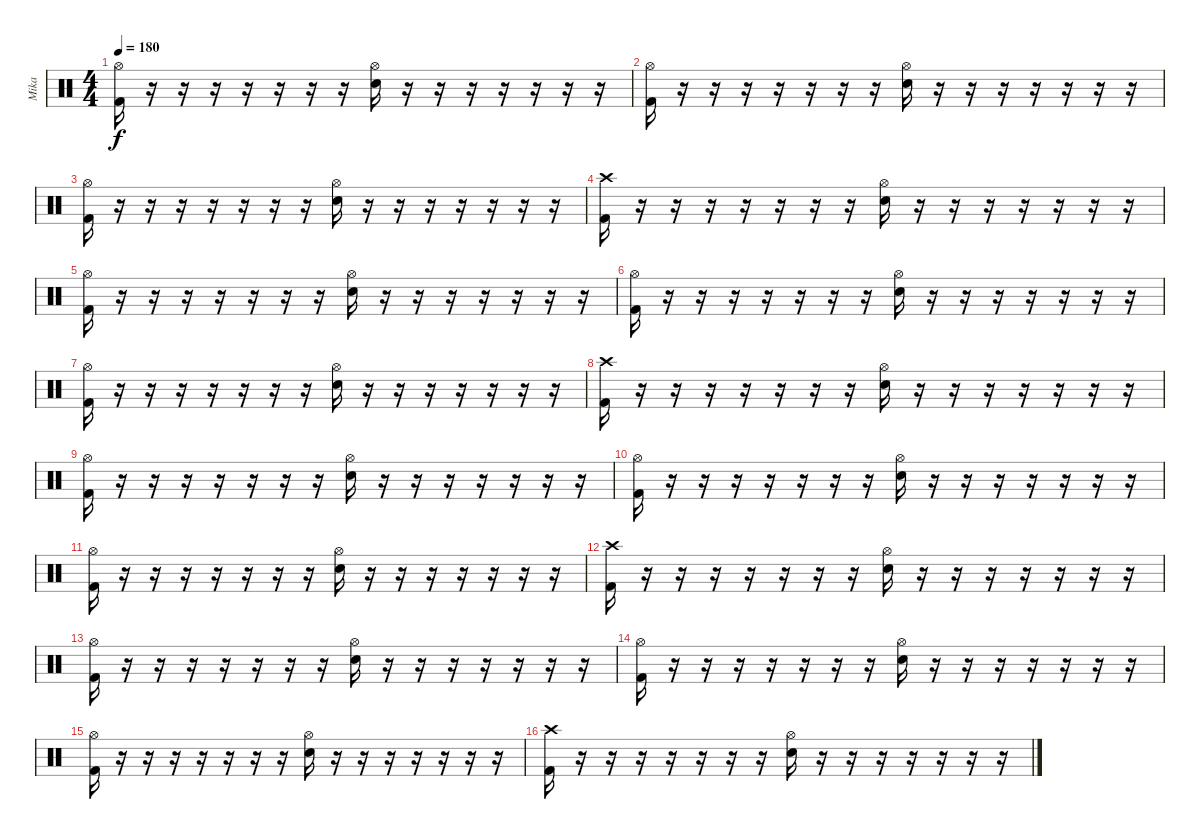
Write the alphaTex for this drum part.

\track ("Mika" "Mika") {instrument percussion}
\staff {score}
\articulation defaults
\ts (4 4)
\tempo 180
\clef neutral
\ks c
("Hi-Hat (open)" "Kick (hit) 2").16{dy f} r.16 r.16 r.16 r.16 r.16 r.16 r.16 ("Hi-Hat (open)" "Electric Snare (hit)").16 r.16 r.16 r.16 r.16 r.16 r.16 r.16 |
("Hi-Hat (open)" "Kick (hit) 2").16 r.16 r.16 r.16 r.16 r.16 r.16 r.16 ("Hi-Hat (open)" "Electric Snare (hit)").16 r.16 r.16 r.16 r.16 r.16 r.16 r.16 |
("Hi-Hat (open)" "Kick (hit) 2").16 r.16 r.16 r.16 r.16 r.16 r.16 r.16 ("Hi-Hat (open)" "Electric Snare (hit)").16 r.16 r.16 r.16 r.16 r.16 r.16 r.16 |
("Crash high (hit)" "Kick (hit) 2").16 r.16 r.16 r.16 r.16 r.16 r.16 r.16 ("Hi-Hat (open)" "Electric Snare (hit)").16 r.16 r.16 r.16 r.16 r.16 r.16 r.16 |
("Hi-Hat (open)" "Kick (hit) 2").16 r.16 r.16 r.16 r.16 r.16 r.16 r.16 ("Hi-Hat (open)" "Electric Snare (hit)").16 r.16 r.16 r.16 r.16 r.16 r.16 r.16 |
("Hi-Hat (open)" "Kick (hit) 2").16 r.16 r.16 r.16 r.16 r.16 r.16 r.16 ("Hi-Hat (open)" "Electric Snare (hit)").16 r.16 r.16 r.16 r.16 r.16 r.16 r.16 |
("Hi-Hat (open)" "Kick (hit) 2").16 r.16 r.16 r.16 r.16 r.16 r.16 r.16 ("Hi-Hat (open)" "Electric Snare (hit)").16 r.16 r.16 r.16 r.16 r.16 r.16 r.16 |
("Crash high (hit)" "Kick (hit) 2").16 r.16 r.16 r.16 r.16 r.16 r.16 r.16 ("Hi-Hat (open)" "Electric Snare (hit)").16 r.16 r.16 r.16 r.16 r.16 r.16 r.16 |
("Hi-Hat (open)" "Kick (hit) 2").16 r.16 r.16 r.16 r.16 r.16 r.16 r.16 ("Hi-Hat (open)" "Electric Snare (hit)").16 r.16 r.16 r.16 r.16 r.16 r.16 r.16 |
("Hi-Hat (open)" "Kick (hit) 2").16 r.16 r.16 r.16 r.16 r.16 r.16 r.16 ("Hi-Hat (open)" "Electric Snare (hit)").16 r.16 r.16 r.16 r.16 r.16 r.16 r.16 |
("Hi-Hat (open)" "Kick (hit) 2").16 r.16 r.16 r.16 r.16 r.16 r.16 r.16 ("Hi-Hat (open)" "Electric Snare (hit)").16 r.16 r.16 r.16 r.16 r.16 r.16 r.16 |
("Crash high (hit)" "Kick (hit) 2").16 r.16 r.16 r.16 r.16 r.16 r.16 r.16 ("Hi-Hat (open)" "Electric Snare (hit)").16 r.16 r.16 r.16 r.16 r.16 r.16 r.16 |
("Hi-Hat (open)" "Kick (hit) 2").16 r.16 r.16 r.16 r.16 r.16 r.16 r.16 ("Hi-Hat (open)" "Electric Snare (hit)").16 r.16 r.16 r.16 r.16 r.16 r.16 r.16 |
("Hi-Hat (open)" "Kick (hit) 2").16 r.16 r.16 r.16 r.16 r.16 r.16 r.16 ("Hi-Hat (open)" "Electric Snare (hit)").16 r.16 r.16 r.16 r.16 r.16 r.16 r.16 |
("Hi-Hat (open)" "Kick (hit) 2").16 r.16 r.16 r.16 r.16 r.16 r.16 r.16 ("Hi-Hat (open)" "Electric Snare (hit)").16 r.16 r.16 r.16 r.16 r.16 r.16 r.16 |
("Crash high (hit)" "Kick (hit) 2").16 r.16 r.16 r.16 r.16 r.16 r.16 r.16 ("Hi-Hat (open)" "Electric Snare (hit)").16 r.16 r.16 r.16 r.16 r.16 r.16 r.16
